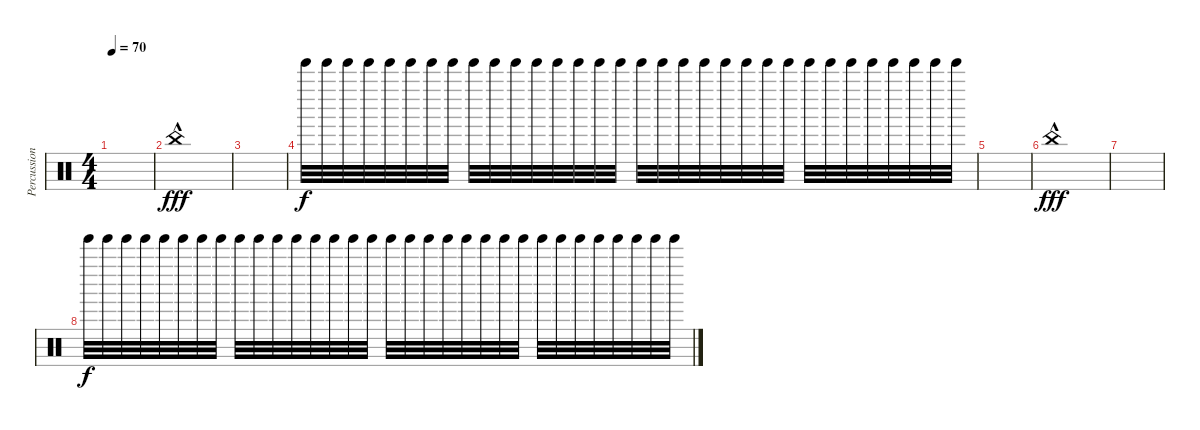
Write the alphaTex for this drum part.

\track ("Percussion" "Percussion") {instrument percussion}
\staff {score}
\articulation defaults
\ts (4 4)
\tempo 70
\clef neutral
\ks c
|
"China (hit)"{hac}.1{dy fff} |
|
"Tinkle Bell (hit)".32{dy f volume 13} "Tinkle Bell (hit)".32 "Tinkle Bell (hit)".32 "Tinkle Bell (hit)".32 "Tinkle Bell (hit)".32 "Tinkle Bell (hit)".32 "Tinkle Bell (hit)".32 "Tinkle Bell (hit)".32 "Tinkle Bell (hit)".32 "Tinkle Bell (hit)".32 "Tinkle Bell (hit)".32 "Tinkle Bell (hit)".32 "Tinkle Bell (hit)".32 "Tinkle Bell (hit)".32 "Tinkle Bell (hit)".32 "Tinkle Bell (hit)".32 "Tinkle Bell (hit)".32 "Tinkle Bell (hit)".32 "Tinkle Bell (hit)".32 "Tinkle Bell (hit)".32 "Tinkle Bell (hit)".32 "Tinkle Bell (hit)".32 "Tinkle Bell (hit)".32 "Tinkle Bell (hit)".32 "Tinkle Bell (hit)".32 "Tinkle Bell (hit)".32 "Tinkle Bell (hit)".32 "Tinkle Bell (hit)".32 "Tinkle Bell (hit)".32 "Tinkle Bell (hit)".32 "Tinkle Bell (hit)".32 "Tinkle Bell (hit)".32 |
|
"China (hit)"{hac}.1{dy fff} |
|
"Tinkle Bell (hit)".32{dy f volume 13} "Tinkle Bell (hit)".32 "Tinkle Bell (hit)".32 "Tinkle Bell (hit)".32 "Tinkle Bell (hit)".32 "Tinkle Bell (hit)".32 "Tinkle Bell (hit)".32 "Tinkle Bell (hit)".32 "Tinkle Bell (hit)".32 "Tinkle Bell (hit)".32 "Tinkle Bell (hit)".32 "Tinkle Bell (hit)".32 "Tinkle Bell (hit)".32 "Tinkle Bell (hit)".32 "Tinkle Bell (hit)".32 "Tinkle Bell (hit)".32 "Tinkle Bell (hit)".32 "Tinkle Bell (hit)".32 "Tinkle Bell (hit)".32 "Tinkle Bell (hit)".32 "Tinkle Bell (hit)".32 "Tinkle Bell (hit)".32 "Tinkle Bell (hit)".32 "Tinkle Bell (hit)".32 "Tinkle Bell (hit)".32 "Tinkle Bell (hit)".32 "Tinkle Bell (hit)".32 "Tinkle Bell (hit)".32 "Tinkle Bell (hit)".32 "Tinkle Bell (hit)".32 "Tinkle Bell (hit)".32 "Tinkle Bell (hit)".32
